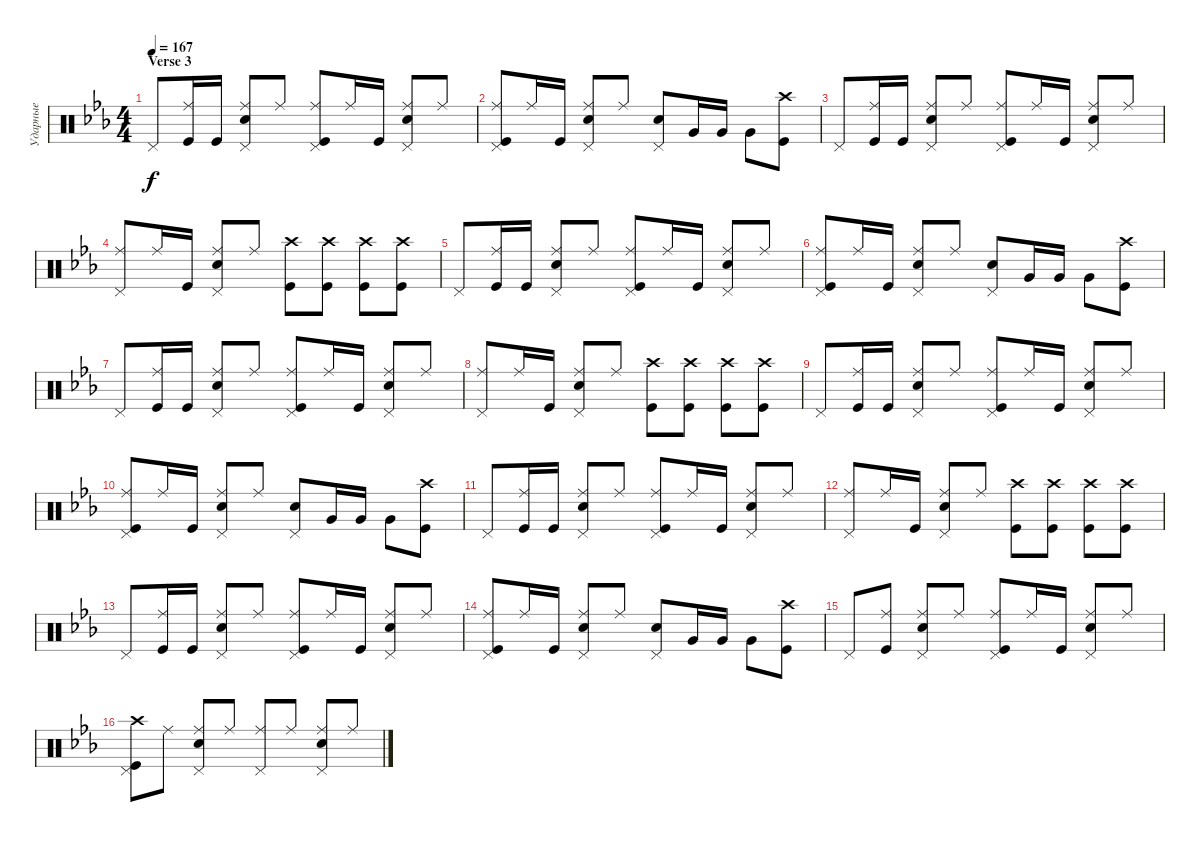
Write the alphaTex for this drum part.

\track ("Ударные" "Ударные") {instrument percussion}
\staff {score}
\articulation defaults
\ts (4 4)
\section ("" "Verse 3")
\tempo 167
\clef neutral
\ks cminor "Pedal Hi-Hat (hit)".8{dy f}
("Ride (middle)" "Kick (hit)").16 "Kick (hit)".16 ("Ride (middle)" "Snare (hit) 2" "Pedal Hi-Hat (hit)").8 "Ride (middle)".8 ("Ride (middle)" "Kick (hit)" "Pedal Hi-Hat (hit)").8 "Ride (middle)".16 "Kick (hit)".16 ("Ride (middle)" "Snare (hit) 2" "Pedal Hi-Hat (hit)").8 "Ride (middle)".8 |
("Ride (middle)" "Kick (hit)" "Pedal Hi-Hat (hit)").8 "Ride (middle)".16 "Kick (hit)".16 ("Ride (middle)" "Snare (hit) 2" "Pedal Hi-Hat (hit)").8 "Ride (middle)".8 ("Pedal Hi-Hat (hit)" "Snare (hit) 2").8 "Very Low Tom (hit)".16 "Very Low Tom (hit)".16 "Very Low Tom (hit)".8 ("Crash high (hit)" "Kick (hit)").8 |
"Pedal Hi-Hat (hit)".8 ("Ride (middle)" "Kick (hit)").16 "Kick (hit)".16 ("Ride (middle)" "Snare (hit) 2" "Pedal Hi-Hat (hit)").8 "Ride (middle)".8 ("Ride (middle)" "Kick (hit)" "Pedal Hi-Hat (hit)").8 "Ride (middle)".16 "Kick (hit)".16 ("Ride (middle)" "Snare (hit) 2" "Pedal Hi-Hat (hit)").8 "Ride (middle)".8 |
("Pedal Hi-Hat (hit)" "Ride (middle)").8 "Ride (middle)".16 "Kick (hit)".16 ("Ride (middle)" "Snare (hit) 2" "Pedal Hi-Hat (hit)").8 "Ride (middle)".8 ("Kick (hit)" "Crash high (hit)").8 ("Crash high (hit)" "Kick (hit)").8 ("Crash high (hit)" "Kick (hit)").8 ("Crash high (hit)" "Kick (hit)").8 |
"Pedal Hi-Hat (hit)".8 ("Ride (middle)" "Kick (hit)").16 "Kick (hit)".16 ("Ride (middle)" "Snare (hit) 2" "Pedal Hi-Hat (hit)").8 "Ride (middle)".8 ("Ride (middle)" "Kick (hit)" "Pedal Hi-Hat (hit)").8 "Ride (middle)".16 "Kick (hit)".16 ("Ride (middle)" "Snare (hit) 2" "Pedal Hi-Hat (hit)").8 "Ride (middle)".8 |
("Ride (middle)" "Kick (hit)" "Pedal Hi-Hat (hit)").8 "Ride (middle)".16 "Kick (hit)".16 ("Ride (middle)" "Snare (hit) 2" "Pedal Hi-Hat (hit)").8 "Ride (middle)".8 ("Pedal Hi-Hat (hit)" "Snare (hit) 2").8 "Very Low Tom (hit)".16 "Very Low Tom (hit)".16 "Very Low Tom (hit)".8 ("Crash high (hit)" "Kick (hit)").8 |
"Pedal Hi-Hat (hit)".8 ("Ride (middle)" "Kick (hit)").16 "Kick (hit)".16 ("Ride (middle)" "Snare (hit) 2" "Pedal Hi-Hat (hit)").8 "Ride (middle)".8 ("Ride (middle)" "Kick (hit)" "Pedal Hi-Hat (hit)").8 "Ride (middle)".16 "Kick (hit)".16 ("Ride (middle)" "Snare (hit) 2" "Pedal Hi-Hat (hit)").8 "Ride (middle)".8 |
("Pedal Hi-Hat (hit)" "Ride (middle)").8 "Ride (middle)".16 "Kick (hit)".16 ("Ride (middle)" "Snare (hit) 2" "Pedal Hi-Hat (hit)").8 "Ride (middle)".8 ("Kick (hit)" "Crash high (hit)").8 ("Crash high (hit)" "Kick (hit)").8 ("Crash high (hit)" "Kick (hit)").8 ("Crash high (hit)" "Kick (hit)").8 |
"Pedal Hi-Hat (hit)".8 ("Ride (middle)" "Kick (hit)").16 "Kick (hit)".16 ("Ride (middle)" "Snare (hit) 2" "Pedal Hi-Hat (hit)").8 "Ride (middle)".8 ("Ride (middle)" "Kick (hit)" "Pedal Hi-Hat (hit)").8 "Ride (middle)".16 "Kick (hit)".16 ("Ride (middle)" "Snare (hit) 2" "Pedal Hi-Hat (hit)").8 "Ride (middle)".8 |
("Ride (middle)" "Kick (hit)" "Pedal Hi-Hat (hit)").8 "Ride (middle)".16 "Kick (hit)".16 ("Ride (middle)" "Snare (hit) 2" "Pedal Hi-Hat (hit)").8 "Ride (middle)".8 ("Pedal Hi-Hat (hit)" "Snare (hit) 2").8 "Very Low Tom (hit)".16 "Very Low Tom (hit)".16 "Very Low Tom (hit)".8 ("Crash high (hit)" "Kick (hit)").8 |
"Pedal Hi-Hat (hit)".8 ("Ride (middle)" "Kick (hit)").16 "Kick (hit)".16 ("Ride (middle)" "Snare (hit) 2" "Pedal Hi-Hat (hit)").8 "Ride (middle)".8 ("Ride (middle)" "Kick (hit)" "Pedal Hi-Hat (hit)").8 "Ride (middle)".16 "Kick (hit)".16 ("Ride (middle)" "Snare (hit) 2" "Pedal Hi-Hat (hit)").8 "Ride (middle)".8 |
("Pedal Hi-Hat (hit)" "Ride (middle)").8 "Ride (middle)".16 "Kick (hit)".16 ("Ride (middle)" "Snare (hit) 2" "Pedal Hi-Hat (hit)").8 "Ride (middle)".8 ("Kick (hit)" "Crash high (hit)").8 ("Crash high (hit)" "Kick (hit)").8 ("Crash high (hit)" "Kick (hit)").8 ("Crash high (hit)" "Kick (hit)").8 |
"Pedal Hi-Hat (hit)".8 ("Ride (middle)" "Kick (hit)").16 "Kick (hit)".16 ("Ride (middle)" "Snare (hit) 2" "Pedal Hi-Hat (hit)").8 "Ride (middle)".8 ("Ride (middle)" "Kick (hit)" "Pedal Hi-Hat (hit)").8 "Ride (middle)".16 "Kick (hit)".16 ("Ride (middle)" "Snare (hit) 2" "Pedal Hi-Hat (hit)").8 "Ride (middle)".8 |
("Ride (middle)" "Kick (hit)" "Pedal Hi-Hat (hit)").8 "Ride (middle)".16 "Kick (hit)".16 ("Ride (middle)" "Snare (hit) 2" "Pedal Hi-Hat (hit)").8 "Ride (middle)".8 ("Pedal Hi-Hat (hit)" "Snare (hit) 2").8 "Very Low Tom (hit)".16 "Very Low Tom (hit)".16 "Very Low Tom (hit)".8 ("Crash high (hit)" "Kick (hit)").8 |
"Pedal Hi-Hat (hit)".8 ("Ride (middle)" "Kick (hit)").8 ("Ride (middle)" "Snare (hit) 2" "Pedal Hi-Hat (hit)").8 "Ride (middle)".8 ("Ride (middle)" "Kick (hit)" "Pedal Hi-Hat (hit)").8 "Ride (middle)".16 "Kick (hit)".16 ("Ride (middle)" "Snare (hit) 2" "Pedal Hi-Hat (hit)").8 "Ride (middle)".8 |
("Pedal Hi-Hat (hit)" "Crash high (hit)" "Kick (hit)").8 "Ride (middle)".8 ("Ride (middle)" "Snare (hit) 2" "Pedal Hi-Hat (hit)").8 "Ride (middle)".8 ("Pedal Hi-Hat (hit)" "Ride (middle)").8 "Ride (middle)".8 ("Ride (middle)" "Snare (hit) 2" "Pedal Hi-Hat (hit)").8 "Ride (middle)".8
